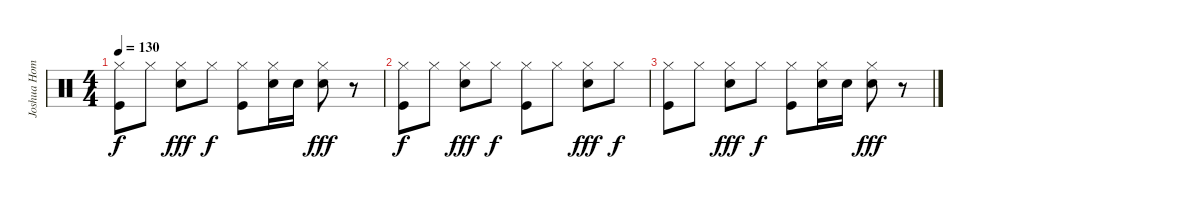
\track ("Joshua Homme - drums" "Joshua Hom") {instrument percussion}
\staff {score}
\articulation defaults
\ts (4 4)
\tempo 130
\clef neutral
\ks c
("Hi-Hat (closed)" "Kick (hit)").8{dy f} "Hi-Hat (closed)".8 ("Hi-Hat (closed)" "Electric Snare (hit)").8{dy fff} "Hi-Hat (closed)".8{dy f} ("Hi-Hat (closed)" "Kick (hit)").8 ("Hi-Hat (closed)" "Electric Snare (hit)").16 "Electric Snare (hit)".16 ("Hi-Hat (closed)" "Electric Snare (hit)").8{dy fff} r.8 |
("Hi-Hat (closed)" "Kick (hit)").8{dy f} "Hi-Hat (closed)".8 ("Hi-Hat (closed)" "Electric Snare (hit)").8{dy fff} "Hi-Hat (closed)".8{dy f} ("Hi-Hat (closed)" "Kick (hit)").8 "Hi-Hat (closed)".8 ("Hi-Hat (closed)" "Electric Snare (hit)").8{dy fff} "Hi-Hat (closed)".8{dy f} |
("Hi-Hat (closed)" "Kick (hit)").8 "Hi-Hat (closed)".8 ("Hi-Hat (closed)" "Electric Snare (hit)").8{dy fff} "Hi-Hat (closed)".8{dy f} ("Hi-Hat (closed)" "Kick (hit)").8 ("Hi-Hat (closed)" "Electric Snare (hit)").16 "Electric Snare (hit)".16 ("Hi-Hat (closed)" "Electric Snare (hit)").8{dy fff} r.8
